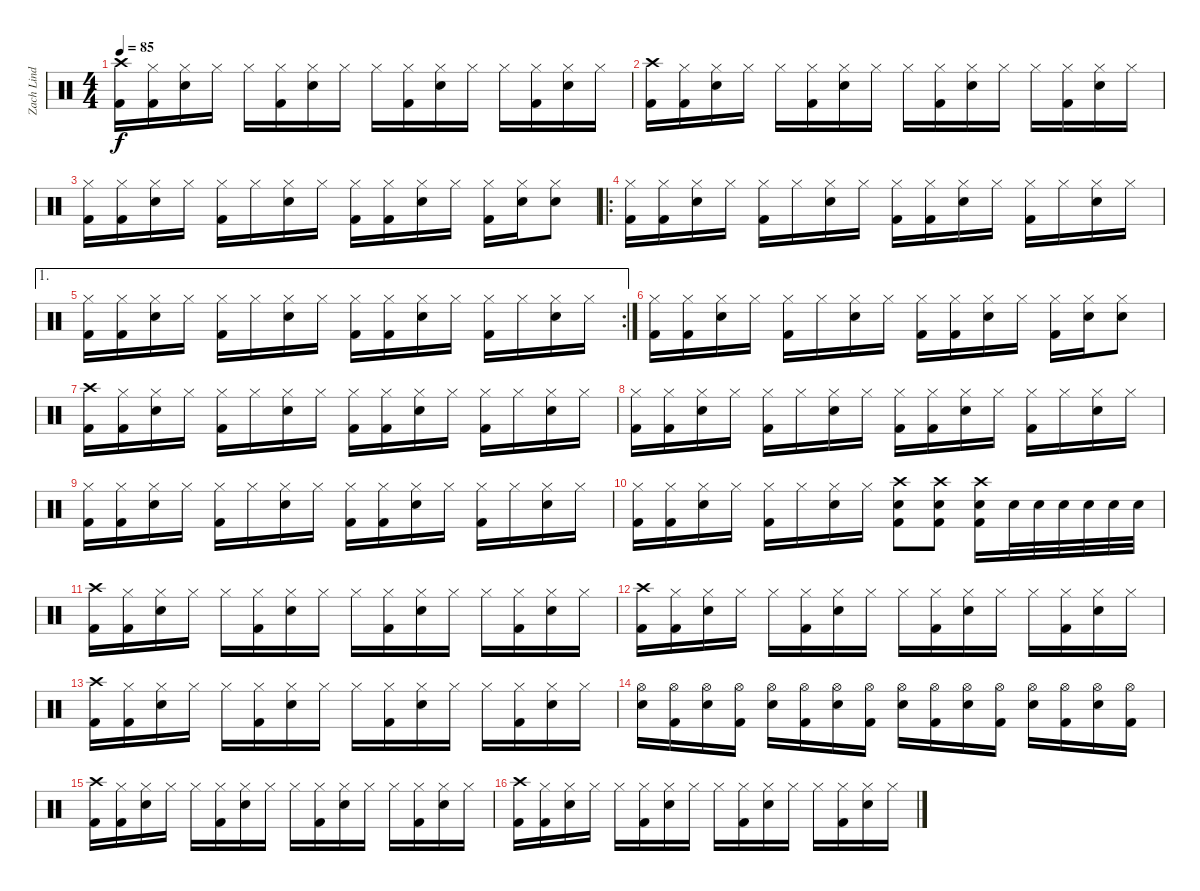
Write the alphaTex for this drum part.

\track ("Zach Lind" "Zach Lind") {instrument percussion}
\staff {score}
\articulation defaults
\ts (4 4)
\tempo 85
\clef neutral
\ks c
("Crash high (hit)" "Kick (hit) 2").16{dy f} ("Hi-Hat (closed)" "Kick (hit) 2").16 ("Hi-Hat (closed)" "Snare (hit) 2").16 "Hi-Hat (closed)".16 "Hi-Hat (closed)".16 ("Hi-Hat (closed)" "Kick (hit) 2").16 ("Hi-Hat (closed)" "Snare (hit) 2").16 "Hi-Hat (closed)".16 "Hi-Hat (closed)".16 ("Hi-Hat (closed)" "Kick (hit) 2").16 ("Hi-Hat (closed)" "Snare (hit) 2").16 "Hi-Hat (closed)".16 "Hi-Hat (closed)".16 ("Hi-Hat (closed)" "Kick (hit) 2").16 ("Hi-Hat (closed)" "Snare (hit) 2").16 "Hi-Hat (closed)".16 |
("Crash high (hit)" "Kick (hit) 2").16 ("Hi-Hat (closed)" "Kick (hit) 2").16 ("Hi-Hat (closed)" "Snare (hit) 2").16 "Hi-Hat (closed)".16 "Hi-Hat (closed)".16 ("Hi-Hat (closed)" "Kick (hit) 2").16 ("Hi-Hat (closed)" "Snare (hit) 2").16 "Hi-Hat (closed)".16 "Hi-Hat (closed)".16 ("Hi-Hat (closed)" "Kick (hit) 2").16 ("Hi-Hat (closed)" "Snare (hit) 2").16 "Hi-Hat (closed)".16 "Hi-Hat (closed)".16 ("Hi-Hat (closed)" "Kick (hit) 2").16 ("Hi-Hat (closed)" "Snare (hit) 2").16 "Hi-Hat (closed)".16 |
("Hi-Hat (closed)" "Kick (hit) 2").16 ("Hi-Hat (closed)" "Kick (hit) 2").16 ("Hi-Hat (closed)" "Snare (hit) 2").16 "Hi-Hat (closed)".16 ("Hi-Hat (closed)" "Kick (hit) 2").16 "Hi-Hat (closed)".16 ("Hi-Hat (closed)" "Snare (hit) 2").16 "Hi-Hat (closed)".16 ("Hi-Hat (closed)" "Kick (hit) 2").16 ("Hi-Hat (closed)" "Kick (hit) 2").16 ("Hi-Hat (closed)" "Snare (hit) 2").16 "Hi-Hat (closed)".16 ("Hi-Hat (closed)" "Kick (hit) 2").16 ("Hi-Hat (closed)" "Snare (hit) 2").16 ("Hi-Hat (closed)" "Snare (hit) 2").8 |
\ro
("Hi-Hat (closed)" "Kick (hit) 2").16 ("Hi-Hat (closed)" "Kick (hit) 2").16 ("Hi-Hat (closed)" "Snare (hit) 2").16 "Hi-Hat (closed)".16 ("Hi-Hat (closed)" "Kick (hit) 2").16 "Hi-Hat (closed)".16 ("Hi-Hat (closed)" "Snare (hit) 2").16 "Hi-Hat (closed)".16 ("Hi-Hat (closed)" "Kick (hit) 2").16 ("Hi-Hat (closed)" "Kick (hit) 2").16 ("Hi-Hat (closed)" "Snare (hit) 2").16 "Hi-Hat (closed)".16 ("Hi-Hat (closed)" "Kick (hit) 2").16 "Hi-Hat (closed)".16 ("Hi-Hat (closed)" "Snare (hit) 2").16 "Hi-Hat (closed)".16 |
\ae 1
\rc 2
("Hi-Hat (closed)" "Kick (hit) 2").16 ("Hi-Hat (closed)" "Kick (hit) 2").16 ("Hi-Hat (closed)" "Snare (hit) 2").16 "Hi-Hat (closed)".16 ("Hi-Hat (closed)" "Kick (hit) 2").16 "Hi-Hat (closed)".16 ("Hi-Hat (closed)" "Snare (hit) 2").16 "Hi-Hat (closed)".16 ("Hi-Hat (closed)" "Kick (hit) 2").16 ("Hi-Hat (closed)" "Kick (hit) 2").16 ("Hi-Hat (closed)" "Snare (hit) 2").16 "Hi-Hat (closed)".16 ("Hi-Hat (closed)" "Kick (hit) 2").16 "Hi-Hat (closed)".16 ("Hi-Hat (closed)" "Snare (hit) 2").16 "Hi-Hat (closed)".16 |
("Hi-Hat (closed)" "Kick (hit) 2").16 ("Hi-Hat (closed)" "Kick (hit) 2").16 ("Hi-Hat (closed)" "Snare (hit) 2").16 "Hi-Hat (closed)".16 ("Hi-Hat (closed)" "Kick (hit) 2").16 "Hi-Hat (closed)".16 ("Hi-Hat (closed)" "Snare (hit) 2").16 "Hi-Hat (closed)".16 ("Hi-Hat (closed)" "Kick (hit) 2").16 ("Hi-Hat (closed)" "Kick (hit) 2").16 ("Hi-Hat (closed)" "Snare (hit) 2").16 "Hi-Hat (closed)".16 ("Hi-Hat (closed)" "Kick (hit) 2").16 ("Hi-Hat (closed)" "Snare (hit) 2").16 ("Hi-Hat (closed)" "Snare (hit) 2").8 |
("Crash high (hit)" "Kick (hit) 2").16 ("Hi-Hat (closed)" "Kick (hit) 2").16 ("Hi-Hat (closed)" "Snare (hit) 2").16 "Hi-Hat (closed)".16 ("Hi-Hat (closed)" "Kick (hit) 2").16 "Hi-Hat (closed)".16 ("Hi-Hat (closed)" "Snare (hit) 2").16 "Hi-Hat (closed)".16 ("Hi-Hat (closed)" "Kick (hit) 2").16 ("Hi-Hat (closed)" "Kick (hit) 2").16 ("Hi-Hat (closed)" "Snare (hit) 2").16 "Hi-Hat (closed)".16 ("Hi-Hat (closed)" "Kick (hit) 2").16 "Hi-Hat (closed)".16 ("Hi-Hat (closed)" "Snare (hit) 2").16 "Hi-Hat (closed)".16 |
("Hi-Hat (closed)" "Kick (hit) 2").16 ("Hi-Hat (closed)" "Kick (hit) 2").16 ("Hi-Hat (closed)" "Snare (hit) 2").16 "Hi-Hat (closed)".16 ("Hi-Hat (closed)" "Kick (hit) 2").16 "Hi-Hat (closed)".16 ("Hi-Hat (closed)" "Snare (hit) 2").16 "Hi-Hat (closed)".16 ("Hi-Hat (closed)" "Kick (hit) 2").16 ("Hi-Hat (closed)" "Kick (hit) 2").16 ("Hi-Hat (closed)" "Snare (hit) 2").16 "Hi-Hat (closed)".16 ("Hi-Hat (closed)" "Kick (hit) 2").16 "Hi-Hat (closed)".16 ("Hi-Hat (closed)" "Snare (hit) 2").16 "Hi-Hat (closed)".16 |
("Hi-Hat (closed)" "Kick (hit) 2").16 ("Hi-Hat (closed)" "Kick (hit) 2").16 ("Hi-Hat (closed)" "Snare (hit) 2").16 "Hi-Hat (closed)".16 ("Hi-Hat (closed)" "Kick (hit) 2").16 "Hi-Hat (closed)".16 ("Hi-Hat (closed)" "Snare (hit) 2").16 "Hi-Hat (closed)".16 ("Hi-Hat (closed)" "Kick (hit) 2").16 ("Hi-Hat (closed)" "Kick (hit) 2").16 ("Hi-Hat (closed)" "Snare (hit) 2").16 "Hi-Hat (closed)".16 ("Hi-Hat (closed)" "Kick (hit) 2").16 "Hi-Hat (closed)".16 ("Hi-Hat (closed)" "Snare (hit) 2").16 "Hi-Hat (closed)".16 |
("Hi-Hat (closed)" "Kick (hit) 2").16 ("Hi-Hat (closed)" "Kick (hit) 2").16 ("Hi-Hat (closed)" "Snare (hit) 2").16 "Hi-Hat (closed)".16 ("Hi-Hat (closed)" "Kick (hit) 2").16 "Hi-Hat (closed)".16 ("Hi-Hat (closed)" "Snare (hit) 2").16 "Hi-Hat (closed)".16 ("Crash high (hit)" "Snare (hit) 2" "Kick (hit) 2").8 ("Crash high (hit)" "Snare (hit) 2" "Kick (hit) 2").8 ("Crash high (hit)" "Snare (hit) 2" "Kick (hit) 2").16 "Snare (hit) 2".32 "Snare (hit) 2".32 "Snare (hit) 2".32 "Snare (hit) 2".32 "Snare (hit) 2".32 "Snare (hit) 2".32 |
("Crash high (hit)" "Kick (hit) 2").16 ("Hi-Hat (closed)" "Kick (hit) 2").16 ("Hi-Hat (closed)" "Snare (hit) 2").16 "Hi-Hat (closed)".16 "Hi-Hat (closed)".16 ("Hi-Hat (closed)" "Kick (hit) 2").16 ("Hi-Hat (closed)" "Snare (hit) 2").16 "Hi-Hat (closed)".16 "Hi-Hat (closed)".16 ("Hi-Hat (closed)" "Kick (hit) 2").16 ("Hi-Hat (closed)" "Snare (hit) 2").16 "Hi-Hat (closed)".16 "Hi-Hat (closed)".16 ("Hi-Hat (closed)" "Kick (hit) 2").16 ("Hi-Hat (closed)" "Snare (hit) 2").16 "Hi-Hat (closed)".16 |
("Crash high (hit)" "Kick (hit) 2").16 ("Hi-Hat (closed)" "Kick (hit) 2").16 ("Hi-Hat (closed)" "Snare (hit) 2").16 "Hi-Hat (closed)".16 "Hi-Hat (closed)".16 ("Hi-Hat (closed)" "Kick (hit) 2").16 ("Hi-Hat (closed)" "Snare (hit) 2").16 "Hi-Hat (closed)".16 "Hi-Hat (closed)".16 ("Hi-Hat (closed)" "Kick (hit) 2").16 ("Hi-Hat (closed)" "Snare (hit) 2").16 "Hi-Hat (closed)".16 "Hi-Hat (closed)".16 ("Hi-Hat (closed)" "Kick (hit) 2").16 ("Hi-Hat (closed)" "Snare (hit) 2").16 "Hi-Hat (closed)".16 |
("Crash high (hit)" "Kick (hit) 2").16 ("Hi-Hat (closed)" "Kick (hit) 2").16 ("Hi-Hat (closed)" "Snare (hit) 2").16 "Hi-Hat (closed)".16 "Hi-Hat (closed)".16 ("Hi-Hat (closed)" "Kick (hit) 2").16 ("Hi-Hat (closed)" "Snare (hit) 2").16 "Hi-Hat (closed)".16 "Hi-Hat (closed)".16 ("Hi-Hat (closed)" "Kick (hit) 2").16 ("Hi-Hat (closed)" "Snare (hit) 2").16 "Hi-Hat (closed)".16 "Hi-Hat (closed)".16 ("Hi-Hat (closed)" "Kick (hit) 2").16 ("Hi-Hat (closed)" "Snare (hit) 2").16 "Hi-Hat (closed)".16 |
("Hi-Hat (open)" "Snare (hit) 2").16 ("Hi-Hat (open)" "Kick (hit) 2").16 ("Hi-Hat (open)" "Snare (hit) 2").16 ("Hi-Hat (open)" "Kick (hit) 2").16 ("Hi-Hat (open)" "Snare (hit) 2").16 ("Hi-Hat (open)" "Kick (hit) 2").16 ("Hi-Hat (open)" "Snare (hit) 2").16 ("Hi-Hat (open)" "Kick (hit) 2").16 ("Hi-Hat (open)" "Snare (hit) 2").16 ("Hi-Hat (open)" "Kick (hit) 2").16 ("Hi-Hat (open)" "Snare (hit) 2").16 ("Hi-Hat (open)" "Kick (hit) 2").16 ("Hi-Hat (open)" "Snare (hit) 2").16 ("Hi-Hat (open)" "Kick (hit) 2").16 ("Hi-Hat (open)" "Snare (hit) 2").16 ("Hi-Hat (open)" "Kick (hit) 2").16 |
("Crash high (hit)" "Kick (hit) 2").16 ("Hi-Hat (closed)" "Kick (hit) 2").16 ("Hi-Hat (closed)" "Snare (hit) 2").16 "Hi-Hat (closed)".16 "Hi-Hat (closed)".16 ("Hi-Hat (closed)" "Kick (hit) 2").16 ("Hi-Hat (closed)" "Snare (hit) 2").16 "Hi-Hat (closed)".16 "Hi-Hat (closed)".16 ("Hi-Hat (closed)" "Kick (hit) 2").16 ("Hi-Hat (closed)" "Snare (hit) 2").16 "Hi-Hat (closed)".16 "Hi-Hat (closed)".16 ("Hi-Hat (closed)" "Kick (hit) 2").16 ("Hi-Hat (closed)" "Snare (hit) 2").16 "Hi-Hat (closed)".16 |
("Crash high (hit)" "Kick (hit) 2").16 ("Hi-Hat (closed)" "Kick (hit) 2").16 ("Hi-Hat (closed)" "Snare (hit) 2").16 "Hi-Hat (closed)".16 "Hi-Hat (closed)".16 ("Hi-Hat (closed)" "Kick (hit) 2").16 ("Hi-Hat (closed)" "Snare (hit) 2").16 "Hi-Hat (closed)".16 "Hi-Hat (closed)".16 ("Hi-Hat (closed)" "Kick (hit) 2").16 ("Hi-Hat (closed)" "Snare (hit) 2").16 "Hi-Hat (closed)".16 "Hi-Hat (closed)".16 ("Hi-Hat (closed)" "Kick (hit) 2").16 ("Hi-Hat (closed)" "Snare (hit) 2").16 "Hi-Hat (closed)".16
